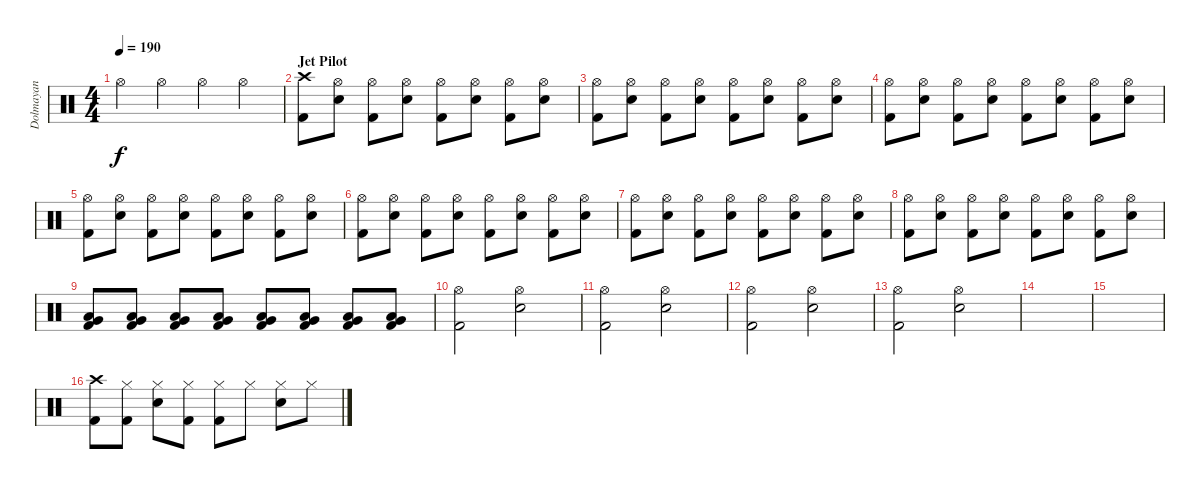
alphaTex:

\track ("Dolmayan" "Dolmayan") {instrument percussion}
\staff {score}
\articulation defaults
\ts (4 4)
\tempo 190
\clef neutral
\ks c "Hi-Hat (open)".4{dy f} "Hi-Hat (open)".4 "Hi-Hat (open)".4 "Hi-Hat (open)".4
|
\section ("" "Jet Pilot")
("Crash high (hit)" "Kick (hit) 2").8 ("Hi-Hat (open)" "Electric Snare (hit)").8 ("Hi-Hat (open)" "Kick (hit) 2").8 ("Hi-Hat (open)" "Electric Snare (hit)").8 ("Hi-Hat (open)" "Kick (hit) 2").8 ("Hi-Hat (open)" "Electric Snare (hit)").8 ("Hi-Hat (open)" "Kick (hit) 2").8 ("Hi-Hat (open)" "Electric Snare (hit)").8 |
("Hi-Hat (open)" "Kick (hit) 2").8 ("Hi-Hat (open)" "Electric Snare (hit)").8 ("Hi-Hat (open)" "Kick (hit) 2").8 ("Hi-Hat (open)" "Electric Snare (hit)").8 ("Hi-Hat (open)" "Kick (hit) 2").8 ("Hi-Hat (open)" "Electric Snare (hit)").8 ("Hi-Hat (open)" "Kick (hit) 2").8 ("Hi-Hat (open)" "Electric Snare (hit)").8 |
("Hi-Hat (open)" "Kick (hit) 2").8 ("Hi-Hat (open)" "Electric Snare (hit)").8 ("Hi-Hat (open)" "Kick (hit) 2").8 ("Hi-Hat (open)" "Electric Snare (hit)").8 ("Hi-Hat (open)" "Kick (hit) 2").8 ("Hi-Hat (open)" "Electric Snare (hit)").8 ("Hi-Hat (open)" "Kick (hit) 2").8 ("Hi-Hat (open)" "Electric Snare (hit)").8 |
("Hi-Hat (open)" "Kick (hit) 2").8 ("Hi-Hat (open)" "Electric Snare (hit)").8 ("Hi-Hat (open)" "Kick (hit) 2").8 ("Hi-Hat (open)" "Electric Snare (hit)").8 ("Hi-Hat (open)" "Kick (hit) 2").8 ("Hi-Hat (open)" "Electric Snare (hit)").8 ("Hi-Hat (open)" "Kick (hit) 2").8 ("Hi-Hat (open)" "Electric Snare (hit)").8 |
("Hi-Hat (open)" "Kick (hit) 2").8 ("Hi-Hat (open)" "Electric Snare (hit)").8 ("Hi-Hat (open)" "Kick (hit) 2").8 ("Hi-Hat (open)" "Electric Snare (hit)").8 ("Hi-Hat (open)" "Kick (hit) 2").8 ("Hi-Hat (open)" "Electric Snare (hit)").8 ("Hi-Hat (open)" "Kick (hit) 2").8 ("Hi-Hat (open)" "Electric Snare (hit)").8 |
("Hi-Hat (open)" "Kick (hit) 2").8 ("Hi-Hat (open)" "Electric Snare (hit)").8 ("Hi-Hat (open)" "Kick (hit) 2").8 ("Hi-Hat (open)" "Electric Snare (hit)").8 ("Hi-Hat (open)" "Kick (hit) 2").8 ("Hi-Hat (open)" "Electric Snare (hit)").8 ("Hi-Hat (open)" "Kick (hit) 2").8 ("Hi-Hat (open)" "Electric Snare (hit)").8 |
("Hi-Hat (open)" "Kick (hit) 2").8 ("Hi-Hat (open)" "Electric Snare (hit)").8 ("Hi-Hat (open)" "Kick (hit) 2").8 ("Hi-Hat (open)" "Electric Snare (hit)").8 ("Hi-Hat (open)" "Kick (hit) 2").8 ("Hi-Hat (open)" "Electric Snare (hit)").8 ("Hi-Hat (open)" "Kick (hit) 2").8 ("Hi-Hat (open)" "Electric Snare (hit)").8 |
("Very Low Tom (hit)" "Low Tom (hit)" "Kick (hit) 2").8 ("Very Low Tom (hit)" "Low Tom (hit)" "Kick (hit) 2").8 ("Very Low Tom (hit)" "Low Tom (hit)" "Kick (hit) 2").8 ("Very Low Tom (hit)" "Low Tom (hit)" "Kick (hit) 2").8 ("Very Low Tom (hit)" "Low Tom (hit)" "Kick (hit) 2").8 ("Very Low Tom (hit)" "Low Tom (hit)" "Kick (hit) 2").8 ("Very Low Tom (hit)" "Low Tom (hit)" "Kick (hit) 2").8 ("Very Low Tom (hit)" "Low Tom (hit)" "Kick (hit) 2").8 |
("Hi-Hat (open)" "Kick (hit) 2").2 ("Hi-Hat (open)" "Electric Snare (hit)").2 |
("Hi-Hat (open)" "Kick (hit) 2").2 ("Hi-Hat (open)" "Electric Snare (hit)").2 |
("Hi-Hat (open)" "Kick (hit) 2").2 ("Hi-Hat (open)" "Electric Snare (hit)").2 |
("Hi-Hat (open)" "Kick (hit) 2").2 ("Hi-Hat (open)" "Electric Snare (hit)").2 |
|
|
("Crash high (hit)" "Kick (hit) 2").8 ("Hi-Hat (closed)" "Kick (hit) 2").8 ("Hi-Hat (closed)" "Electric Snare (hit)").8 ("Hi-Hat (closed)" "Kick (hit) 2").8 ("Hi-Hat (closed)" "Kick (hit) 2").8 "Hi-Hat (closed)".8 ("Hi-Hat (closed)" "Electric Snare (hit)").8 "Hi-Hat (closed)".8
